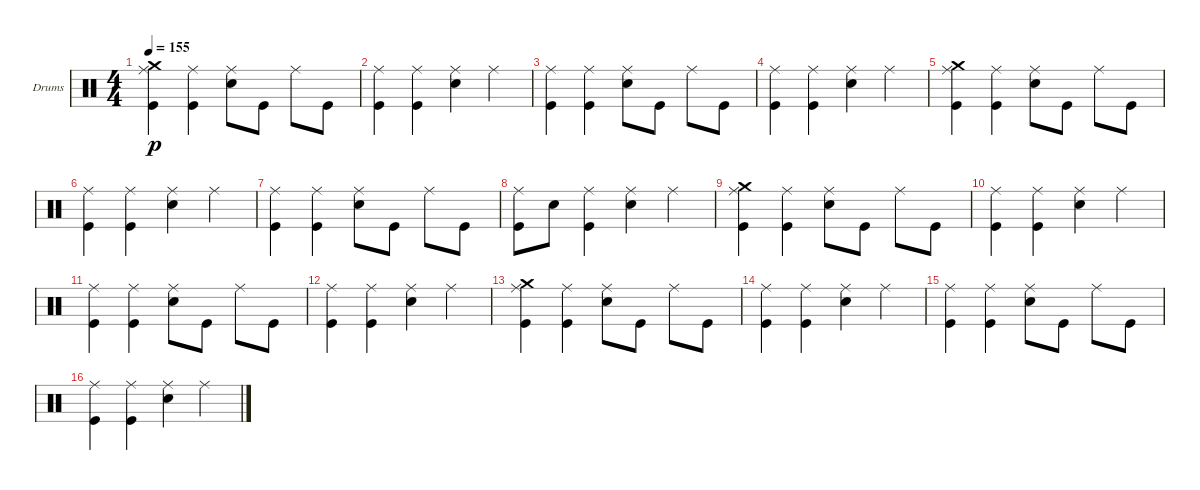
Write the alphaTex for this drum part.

\defaultSystemsLayout 4
\bracketExtendMode groupsimilarinstruments
\firstSystemTrackNameOrientation horizontal
\otherSystemsTrackNameOrientation horizontal
\track ("Drumkit" "Drums") {instrument percussion}
\staff {score}
\articulation defaults
\ts (4 4)
\tempo 155
\clef neutral
\scale
0.333333
\ks c
("Crash medium (hit)" "Ride (middle)" "Kick (hit)").4{dy p} ("Ride (middle)" "Kick (hit)").4 ("Ride (middle)" "Snare (hit) 2").8 "Kick (hit)".8 "Ride (middle)".8 "Kick (hit)".8 |
\scale
0.333333 ("Ride (middle)" "Kick (hit)").4 ("Ride (middle)" "Kick (hit)").4 ("Ride (middle)" "Snare (hit) 2").4 "Ride (middle)".4 |
\scale
0.333333 ("Ride (middle)" "Kick (hit)").4 ("Ride (middle)" "Kick (hit)").4 ("Ride (middle)" "Snare (hit) 2").8 "Kick (hit)".8 "Ride (middle)".8 "Kick (hit)".8 |
\scale
0.333333 ("Ride (middle)" "Kick (hit)").4 ("Ride (middle)" "Kick (hit)").4 ("Ride (middle)" "Snare (hit) 2").4 "Ride (middle)".4 |
\scale
0.333333 ("Crash medium (hit)" "Ride (middle)" "Kick (hit)").4 ("Ride (middle)" "Kick (hit)").4 ("Ride (middle)" "Snare (hit) 2").8 "Kick (hit)".8 "Ride (middle)".8 "Kick (hit)".8 |
\scale
0.333333 ("Ride (middle)" "Kick (hit)").4 ("Ride (middle)" "Kick (hit)").4 ("Ride (middle)" "Snare (hit) 2").4 "Ride (middle)".4 |
\scale
0.333333 ("Ride (middle)" "Kick (hit)").4 ("Ride (middle)" "Kick (hit)").4 ("Ride (middle)" "Snare (hit) 2").8 "Kick (hit)".8 "Ride (middle)".8 "Kick (hit)".8 |
\scale
0.333333 ("Ride (middle)" "Kick (hit)").8 "Snare (hit) 2".8 ("Ride (middle)" "Kick (hit)").4 ("Ride (middle)" "Snare (hit) 2").4 "Ride (middle)".4 |
\scale
0.333333 ("Ride (middle)" "Kick (hit)" "Crash medium (hit)").4 ("Ride (middle)" "Kick (hit)").4 ("Ride (middle)" "Snare (hit) 2").8 "Kick (hit)".8 "Ride (middle)".8 "Kick (hit)".8 |
\scale
0.333333 ("Ride (middle)" "Kick (hit)").4 ("Ride (middle)" "Kick (hit)").4 ("Ride (middle)" "Snare (hit) 2").4 "Ride (middle)".4 |
\scale
0.333333 ("Ride (middle)" "Kick (hit)").4 ("Ride (middle)" "Kick (hit)").4 ("Ride (middle)" "Snare (hit) 2").8 "Kick (hit)".8 "Ride (middle)".8 "Kick (hit)".8 |
\scale
0.333333 ("Ride (middle)" "Kick (hit)").4 ("Ride (middle)" "Kick (hit)").4 ("Ride (middle)" "Snare (hit) 2").4 "Ride (middle)".4 |
\scale
0.333333 ("Ride (middle)" "Kick (hit)" "Crash medium (hit)").4 ("Ride (middle)" "Kick (hit)").4 ("Ride (middle)" "Snare (hit) 2").8 "Kick (hit)".8 "Ride (middle)".8 "Kick (hit)".8 |
\scale
0.333333 ("Ride (middle)" "Kick (hit)").4 ("Ride (middle)" "Kick (hit)").4 ("Ride (middle)" "Snare (hit) 2").4 "Ride (middle)".4 |
\scale
0.333333 ("Ride (middle)" "Kick (hit)").4 ("Ride (middle)" "Kick (hit)").4 ("Ride (middle)" "Snare (hit) 2").8 "Kick (hit)".8 "Ride (middle)".8 "Kick (hit)".8 |
\scale
0.333333 ("Ride (middle)" "Kick (hit)").4 ("Ride (middle)" "Kick (hit)").4 ("Ride (middle)" "Snare (hit) 2").4 "Ride (middle)".4
